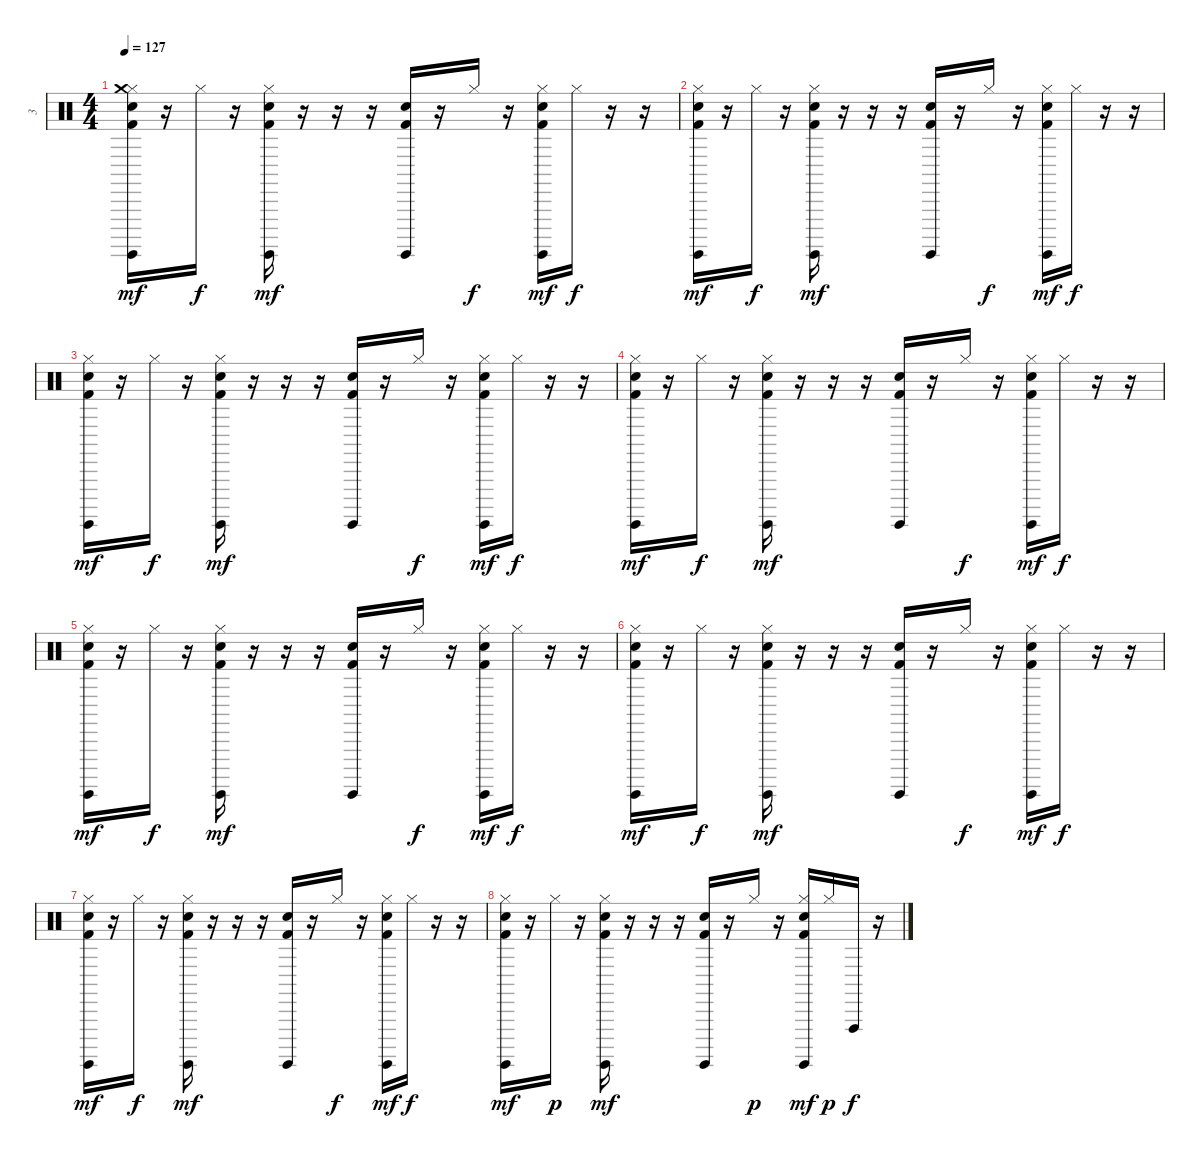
\track ("3" "3") {instrument percussion}
\staff {score}
\articulation defaults
\ts (4 4)
\tempo 127
\clef neutral
\ks c
("Hi-Hat (closed)" "Crash medium (hit)" "Surdo (hit)" "Kick (hit) 2" "Hand Clap (hit)").16{dy mf} r.16 "Hi-Hat (closed)".16{dy f} r.16 ("Hi-Hat (closed)" "Surdo (hit)" "Kick (hit) 2" "Hand Clap (hit)").16{dy mf} r.16 r.16 r.16 ("Surdo (hit)" "Kick (hit) 2" "Hand Clap (hit)").16 r.16 "Hi-Hat (closed)".16{dy f} r.16 ("Hi-Hat (closed)" "Surdo (hit)" "Kick (hit) 2" "Hand Clap (hit)").16{dy mf} "Hi-Hat (closed)".16{dy f} r.16 r.16 |
("Hi-Hat (closed)" "Surdo (hit)" "Kick (hit) 2" "Hand Clap (hit)").16{dy mf} r.16 "Hi-Hat (closed)".16{dy f} r.16 ("Hi-Hat (closed)" "Surdo (hit)" "Kick (hit) 2" "Hand Clap (hit)").16{dy mf} r.16 r.16 r.16 ("Surdo (hit)" "Kick (hit) 2" "Hand Clap (hit)").16 r.16 "Hi-Hat (closed)".16{dy f} r.16 ("Hi-Hat (closed)" "Surdo (hit)" "Kick (hit) 2" "Hand Clap (hit)").16{dy mf} "Hi-Hat (closed)".16{dy f} r.16 r.16 |
("Hi-Hat (closed)" "Surdo (hit)" "Kick (hit) 2" "Hand Clap (hit)").16{dy mf} r.16 "Hi-Hat (closed)".16{dy f} r.16 ("Hi-Hat (closed)" "Surdo (hit)" "Kick (hit) 2" "Hand Clap (hit)").16{dy mf} r.16 r.16 r.16 ("Surdo (hit)" "Kick (hit) 2" "Hand Clap (hit)").16 r.16 "Hi-Hat (closed)".16{dy f} r.16 ("Hi-Hat (closed)" "Surdo (hit)" "Kick (hit) 2" "Hand Clap (hit)").16{dy mf} "Hi-Hat (closed)".16{dy f} r.16 r.16 |
("Hi-Hat (closed)" "Surdo (hit)" "Kick (hit) 2" "Hand Clap (hit)").16{dy mf} r.16 "Hi-Hat (closed)".16{dy f} r.16 ("Hi-Hat (closed)" "Surdo (hit)" "Kick (hit) 2" "Hand Clap (hit)").16{dy mf} r.16 r.16 r.16 ("Surdo (hit)" "Kick (hit) 2" "Hand Clap (hit)").16 r.16 "Hi-Hat (closed)".16{dy f} r.16 ("Hi-Hat (closed)" "Surdo (hit)" "Kick (hit) 2" "Hand Clap (hit)").16{dy mf} "Hi-Hat (closed)".16{dy f} r.16 r.16 |
("Hi-Hat (closed)" "Surdo (hit)" "Kick (hit) 2" "Hand Clap (hit)").16{dy mf} r.16 "Hi-Hat (closed)".16{dy f} r.16 ("Hi-Hat (closed)" "Surdo (hit)" "Kick (hit) 2" "Hand Clap (hit)").16{dy mf} r.16 r.16 r.16 ("Surdo (hit)" "Kick (hit) 2" "Hand Clap (hit)").16 r.16 "Hi-Hat (closed)".16{dy f} r.16 ("Hi-Hat (closed)" "Surdo (hit)" "Kick (hit) 2" "Hand Clap (hit)").16{dy mf} "Hi-Hat (closed)".16{dy f} r.16 r.16 |
("Hi-Hat (closed)" "Surdo (hit)" "Kick (hit) 2" "Hand Clap (hit)").16{dy mf} r.16 "Hi-Hat (closed)".16{dy f} r.16 ("Hi-Hat (closed)" "Surdo (hit)" "Kick (hit) 2" "Hand Clap (hit)").16{dy mf} r.16 r.16 r.16 ("Surdo (hit)" "Kick (hit) 2" "Hand Clap (hit)").16 r.16 "Hi-Hat (closed)".16{dy f} r.16 ("Hi-Hat (closed)" "Surdo (hit)" "Kick (hit) 2" "Hand Clap (hit)").16{dy mf} "Hi-Hat (closed)".16{dy f} r.16 r.16 |
("Hi-Hat (closed)" "Surdo (hit)" "Kick (hit) 2" "Hand Clap (hit)").16{dy mf} r.16 "Hi-Hat (closed)".16{dy f} r.16 ("Hi-Hat (closed)" "Surdo (hit)" "Kick (hit) 2" "Hand Clap (hit)").16{dy mf} r.16 r.16 r.16 ("Surdo (hit)" "Kick (hit) 2" "Hand Clap (hit)").16 r.16 "Hi-Hat (closed)".16{dy f} r.16 ("Hi-Hat (closed)" "Surdo (hit)" "Kick (hit) 2" "Hand Clap (hit)").16{dy mf} "Hi-Hat (closed)".16{dy f} r.16 r.16 |
("Hi-Hat (closed)" "Surdo (hit)" "Kick (hit) 2" "Hand Clap (hit)").16{dy mf} r.16 "Hi-Hat (closed)".16{dy p} r.16 ("Hi-Hat (closed)" "Surdo (hit)" "Kick (hit) 2" "Hand Clap (hit)").16{dy mf} r.16 r.16 r.16 ("Surdo (hit)" "Kick (hit) 2" "Hand Clap (hit)").16 r.16 "Hi-Hat (closed)".16{dy p} r.16 ("Hi-Hat (closed)" "Surdo (hit)" "Kick (hit) 2" "Hand Clap (hit)").16{dy mf} "Hi-Hat (closed)".16{dy p} "Vibraslap (hit)".16{dy f} r.16
